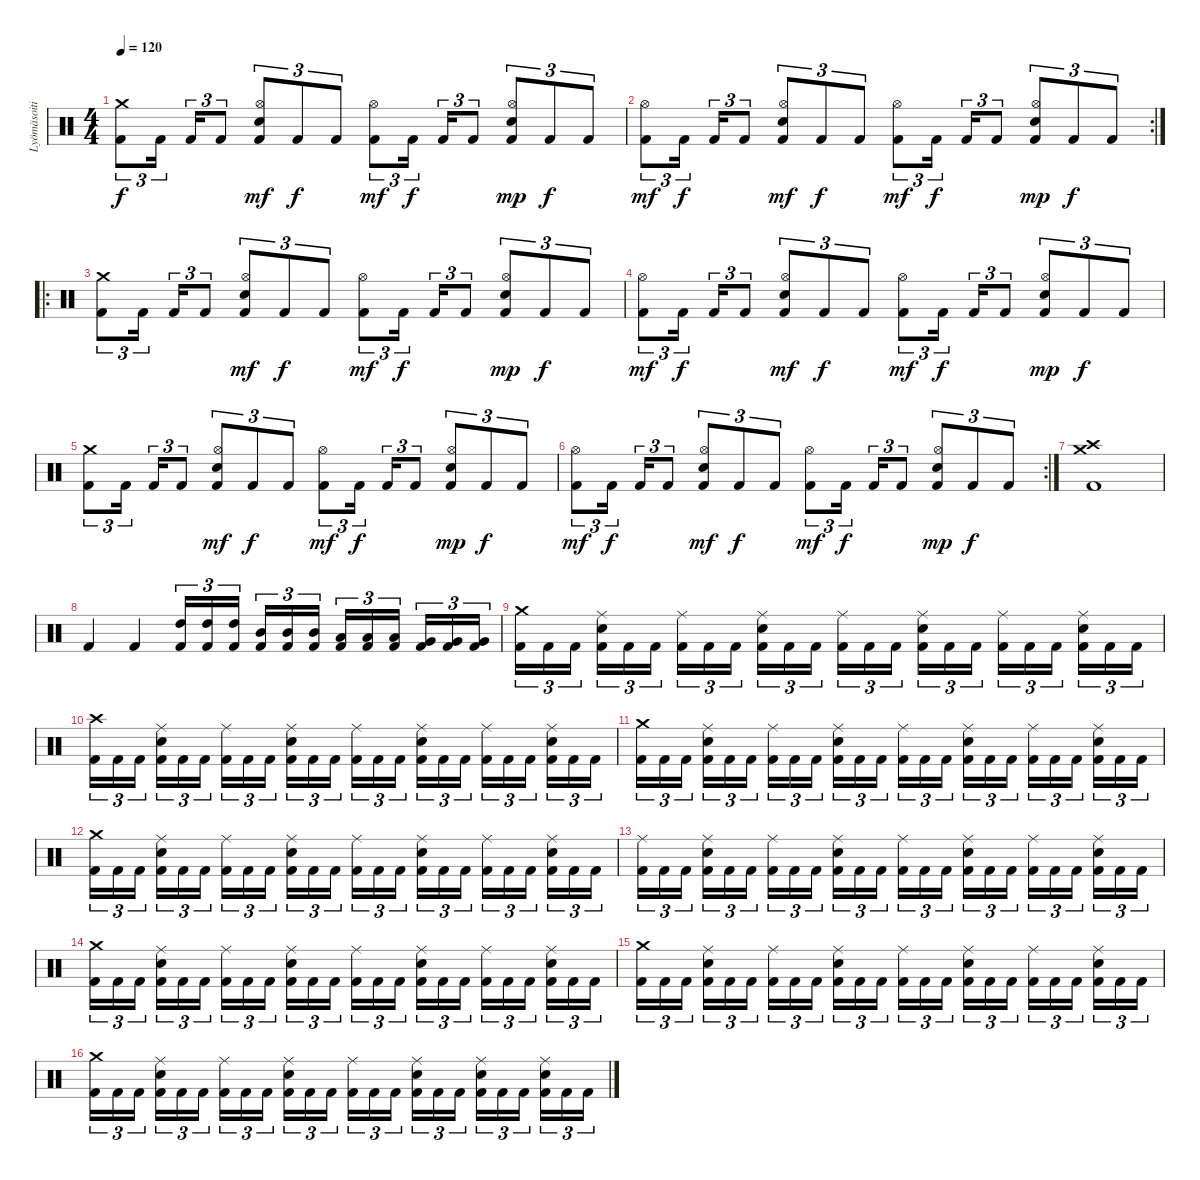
\track ("Lyömäsoitin" "Lyömäsoiti") {instrument percussion}
\staff {score}
\articulation defaults
\ts (4 4)
\tempo 120
\clef neutral
\ks c
("Crash medium (hit)" "Kick (hit) 2").8{tu (3 2) dy f} "Kick (hit) 2".16{tu (3 2)} "Kick (hit) 2".16{tu (3 2)} "Kick (hit) 2".8{tu (3 2)} ("Hi-Hat (open)" "Snare (hit) 2" "Kick (hit) 2").8{tu (3 2) dy mf} "Kick (hit) 2".8{tu (3 2) dy f} "Kick (hit) 2".8{tu (3 2)} ("Hi-Hat (open)" "Kick (hit) 2").8{tu (3 2) dy mf} "Kick (hit) 2".16{tu (3 2) dy f} "Kick (hit) 2".16{tu (3 2)} "Kick (hit) 2".8{tu (3 2)} ("Hi-Hat (open)" "Snare (hit) 2" "Kick (hit) 2").8{tu (3 2) dy mp} "Kick (hit) 2".8{tu (3 2) dy f} "Kick (hit) 2".8{tu (3 2)} |
\rc 2
("Hi-Hat (open)" "Kick (hit) 2").8{tu (3 2) dy mf} "Kick (hit) 2".16{tu (3 2) dy f} "Kick (hit) 2".16{tu (3 2)} "Kick (hit) 2".8{tu (3 2)} ("Hi-Hat (open)" "Snare (hit) 2" "Kick (hit) 2").8{tu (3 2) dy mf} "Kick (hit) 2".8{tu (3 2) dy f} "Kick (hit) 2".8{tu (3 2)} ("Hi-Hat (open)" "Kick (hit) 2").8{tu (3 2) dy mf} "Kick (hit) 2".16{tu (3 2) dy f} "Kick (hit) 2".16{tu (3 2)} "Kick (hit) 2".8{tu (3 2)} ("Hi-Hat (open)" "Snare (hit) 2" "Kick (hit) 2").8{tu (3 2) dy mp} "Kick (hit) 2".8{tu (3 2) dy f} "Kick (hit) 2".8{tu (3 2)} |
\ro
("Crash medium (hit)" "Kick (hit) 2").8{tu (3 2)} "Kick (hit) 2".16{tu (3 2)} "Kick (hit) 2".16{tu (3 2)} "Kick (hit) 2".8{tu (3 2)} ("Hi-Hat (open)" "Snare (hit) 2" "Kick (hit) 2").8{tu (3 2) dy mf} "Kick (hit) 2".8{tu (3 2) dy f} "Kick (hit) 2".8{tu (3 2)} ("Hi-Hat (open)" "Kick (hit) 2").8{tu (3 2) dy mf} "Kick (hit) 2".16{tu (3 2) dy f} "Kick (hit) 2".16{tu (3 2)} "Kick (hit) 2".8{tu (3 2)} ("Hi-Hat (open)" "Snare (hit) 2" "Kick (hit) 2").8{tu (3 2) dy mp} "Kick (hit) 2".8{tu (3 2) dy f} "Kick (hit) 2".8{tu (3 2)} |
("Hi-Hat (open)" "Kick (hit) 2").8{tu (3 2) dy mf} "Kick (hit) 2".16{tu (3 2) dy f} "Kick (hit) 2".16{tu (3 2)} "Kick (hit) 2".8{tu (3 2)} ("Hi-Hat (open)" "Snare (hit) 2" "Kick (hit) 2").8{tu (3 2) dy mf} "Kick (hit) 2".8{tu (3 2) dy f} "Kick (hit) 2".8{tu (3 2)} ("Hi-Hat (open)" "Kick (hit) 2").8{tu (3 2) dy mf} "Kick (hit) 2".16{tu (3 2) dy f} "Kick (hit) 2".16{tu (3 2)} "Kick (hit) 2".8{tu (3 2)} ("Hi-Hat (open)" "Snare (hit) 2" "Kick (hit) 2").8{tu (3 2) dy mp} "Kick (hit) 2".8{tu (3 2) dy f} "Kick (hit) 2".8{tu (3 2)} |
("Crash medium (hit)" "Kick (hit) 2").8{tu (3 2)} "Kick (hit) 2".16{tu (3 2)} "Kick (hit) 2".16{tu (3 2)} "Kick (hit) 2".8{tu (3 2)} ("Hi-Hat (open)" "Snare (hit) 2" "Kick (hit) 2").8{tu (3 2) dy mf} "Kick (hit) 2".8{tu (3 2) dy f} "Kick (hit) 2".8{tu (3 2)} ("Hi-Hat (open)" "Kick (hit) 2").8{tu (3 2) dy mf} "Kick (hit) 2".16{tu (3 2) dy f} "Kick (hit) 2".16{tu (3 2)} "Kick (hit) 2".8{tu (3 2)} ("Hi-Hat (open)" "Snare (hit) 2" "Kick (hit) 2").8{tu (3 2) dy mp} "Kick (hit) 2".8{tu (3 2) dy f} "Kick (hit) 2".8{tu (3 2)} |
\rc 2
("Hi-Hat (open)" "Kick (hit) 2").8{tu (3 2) dy mf} "Kick (hit) 2".16{tu (3 2) dy f} "Kick (hit) 2".16{tu (3 2)} "Kick (hit) 2".8{tu (3 2)} ("Hi-Hat (open)" "Snare (hit) 2" "Kick (hit) 2").8{tu (3 2) dy mf} "Kick (hit) 2".8{tu (3 2) dy f} "Kick (hit) 2".8{tu (3 2)} ("Hi-Hat (open)" "Kick (hit) 2").8{tu (3 2) dy mf} "Kick (hit) 2".16{tu (3 2) dy f} "Kick (hit) 2".16{tu (3 2)} "Kick (hit) 2".8{tu (3 2)} ("Hi-Hat (open)" "Snare (hit) 2" "Kick (hit) 2").8{tu (3 2) dy mp} "Kick (hit) 2".8{tu (3 2) dy f} "Kick (hit) 2".8{tu (3 2)} |
("Crash medium (hit)" "Crash high (hit)" "Kick (hit) 2").1 |
"Kick (hit) 2".4 "Kick (hit) 2".4 ("High Tom (hit)" "Kick (hit) 2").16{tu (3 2)} ("High Tom (hit)" "Kick (hit) 2").16{tu (3 2)} ("High Tom (hit)" "Kick (hit) 2").16{tu (3 2)} ("Mid Tom (hit)" "Kick (hit) 2").16{tu (3 2)} ("Mid Tom (hit)" "Kick (hit) 2").16{tu (3 2)} ("Mid Tom (hit)" "Kick (hit) 2").16{tu (3 2)} ("Low Tom (hit)" "Kick (hit) 2").16{tu (3 2)} ("Low Tom (hit)" "Kick (hit) 2").16{tu (3 2)} ("Low Tom (hit)" "Kick (hit) 2").16{tu (3 2)} ("Very Low Tom (hit)" "Kick (hit) 2").16{tu (3 2)} ("Very Low Tom (hit)" "Kick (hit) 2").16{tu (3 2)} ("Very Low Tom (hit)" "Kick (hit) 2").16{tu (3 2)} |
("Crash medium (hit)" "Kick (hit) 2").16{tu (3 2)} "Kick (hit) 2".16{tu (3 2)} "Kick (hit) 2".16{tu (3 2)} ("Ride (middle)" "Snare (hit) 2" "Kick (hit) 2").16{tu (3 2)} "Kick (hit) 2".16{tu (3 2)} "Kick (hit) 2".16{tu (3 2)} ("Ride (middle)" "Kick (hit) 2").16{tu (3 2)} "Kick (hit) 2".16{tu (3 2)} "Kick (hit) 2".16{tu (3 2)} ("Ride (middle)" "Snare (hit) 2" "Kick (hit) 2").16{tu (3 2)} "Kick (hit) 2".16{tu (3 2)} "Kick (hit) 2".16{tu (3 2)} ("Ride (middle)" "Kick (hit) 2").16{tu (3 2)} "Kick (hit) 2".16{tu (3 2)} "Kick (hit) 2".16{tu (3 2)} ("Ride (middle)" "Snare (hit) 2" "Kick (hit) 2").16{tu (3 2)} "Kick (hit) 2".16{tu (3 2)} "Kick (hit) 2".16{tu (3 2)} ("Ride (middle)" "Kick (hit) 2").16{tu (3 2)} "Kick (hit) 2".16{tu (3 2)} "Kick (hit) 2".16{tu (3 2)} ("Ride (middle)" "Snare (hit) 2" "Kick (hit) 2").16{tu (3 2)} "Kick (hit) 2".16{tu (3 2)} "Kick (hit) 2".16{tu (3 2)} |
("Crash high (hit)" "Kick (hit) 2").16{tu (3 2)} "Kick (hit) 2".16{tu (3 2)} "Kick (hit) 2".16{tu (3 2)} ("Ride (middle)" "Snare (hit) 2" "Kick (hit) 2").16{tu (3 2)} "Kick (hit) 2".16{tu (3 2)} "Kick (hit) 2".16{tu (3 2)} ("Ride (middle)" "Kick (hit) 2").16{tu (3 2)} "Kick (hit) 2".16{tu (3 2)} "Kick (hit) 2".16{tu (3 2)} ("Ride (middle)" "Snare (hit) 2" "Kick (hit) 2").16{tu (3 2)} "Kick (hit) 2".16{tu (3 2)} "Kick (hit) 2".16{tu (3 2)} ("Ride (middle)" "Kick (hit) 2").16{tu (3 2)} "Kick (hit) 2".16{tu (3 2)} "Kick (hit) 2".16{tu (3 2)} ("Ride (middle)" "Snare (hit) 2" "Kick (hit) 2").16{tu (3 2)} "Kick (hit) 2".16{tu (3 2)} "Kick (hit) 2".16{tu (3 2)} ("Ride (middle)" "Kick (hit) 2").16{tu (3 2)} "Kick (hit) 2".16{tu (3 2)} "Kick (hit) 2".16{tu (3 2)} ("Ride (middle)" "Snare (hit) 2" "Kick (hit) 2").16{tu (3 2)} "Kick (hit) 2".16{tu (3 2)} "Kick (hit) 2".16{tu (3 2)} |
("Crash medium (hit)" "Kick (hit) 2").16{tu (3 2)} "Kick (hit) 2".16{tu (3 2)} "Kick (hit) 2".16{tu (3 2)} ("Ride (middle)" "Snare (hit) 2" "Kick (hit) 2").16{tu (3 2)} "Kick (hit) 2".16{tu (3 2)} "Kick (hit) 2".16{tu (3 2)} ("Ride (middle)" "Kick (hit) 2").16{tu (3 2)} "Kick (hit) 2".16{tu (3 2)} "Kick (hit) 2".16{tu (3 2)} ("Ride (middle)" "Snare (hit) 2" "Kick (hit) 2").16{tu (3 2)} "Kick (hit) 2".16{tu (3 2)} "Kick (hit) 2".16{tu (3 2)} ("Ride (middle)" "Kick (hit) 2").16{tu (3 2)} "Kick (hit) 2".16{tu (3 2)} "Kick (hit) 2".16{tu (3 2)} ("Ride (middle)" "Snare (hit) 2" "Kick (hit) 2").16{tu (3 2)} "Kick (hit) 2".16{tu (3 2)} "Kick (hit) 2".16{tu (3 2)} ("Ride (middle)" "Kick (hit) 2").16{tu (3 2)} "Kick (hit) 2".16{tu (3 2)} "Kick (hit) 2".16{tu (3 2)} ("Ride (middle)" "Snare (hit) 2" "Kick (hit) 2").16{tu (3 2)} "Kick (hit) 2".16{tu (3 2)} "Kick (hit) 2".16{tu (3 2)} |
("Crash medium (hit)" "Kick (hit) 2").16{tu (3 2)} "Kick (hit) 2".16{tu (3 2)} "Kick (hit) 2".16{tu (3 2)} ("Ride (middle)" "Snare (hit) 2" "Kick (hit) 2").16{tu (3 2)} "Kick (hit) 2".16{tu (3 2)} "Kick (hit) 2".16{tu (3 2)} ("Ride (middle)" "Kick (hit) 2").16{tu (3 2)} "Kick (hit) 2".16{tu (3 2)} "Kick (hit) 2".16{tu (3 2)} ("Ride (middle)" "Snare (hit) 2" "Kick (hit) 2").16{tu (3 2)} "Kick (hit) 2".16{tu (3 2)} "Kick (hit) 2".16{tu (3 2)} ("Ride (middle)" "Kick (hit) 2").16{tu (3 2)} "Kick (hit) 2".16{tu (3 2)} "Kick (hit) 2".16{tu (3 2)} ("Ride (middle)" "Snare (hit) 2" "Kick (hit) 2").16{tu (3 2)} "Kick (hit) 2".16{tu (3 2)} "Kick (hit) 2".16{tu (3 2)} ("Ride (middle)" "Kick (hit) 2").16{tu (3 2)} "Kick (hit) 2".16{tu (3 2)} "Kick (hit) 2".16{tu (3 2)} ("Ride (middle)" "Snare (hit) 2" "Kick (hit) 2").16{tu (3 2)} "Kick (hit) 2".16{tu (3 2)} "Kick (hit) 2".16{tu (3 2)} |
("Ride (middle)" "Kick (hit) 2").16{tu (3 2)} "Kick (hit) 2".16{tu (3 2)} "Kick (hit) 2".16{tu (3 2)} ("Ride (middle)" "Snare (hit) 2" "Kick (hit) 2").16{tu (3 2)} "Kick (hit) 2".16{tu (3 2)} "Kick (hit) 2".16{tu (3 2)} ("Ride (middle)" "Kick (hit) 2").16{tu (3 2)} "Kick (hit) 2".16{tu (3 2)} "Kick (hit) 2".16{tu (3 2)} ("Ride (middle)" "Snare (hit) 2" "Kick (hit) 2").16{tu (3 2)} "Kick (hit) 2".16{tu (3 2)} "Kick (hit) 2".16{tu (3 2)} ("Ride (middle)" "Kick (hit) 2").16{tu (3 2)} "Kick (hit) 2".16{tu (3 2)} "Kick (hit) 2".16{tu (3 2)} ("Ride (middle)" "Snare (hit) 2" "Kick (hit) 2").16{tu (3 2)} "Kick (hit) 2".16{tu (3 2)} "Kick (hit) 2".16{tu (3 2)} ("Ride (middle)" "Kick (hit) 2").16{tu (3 2)} "Kick (hit) 2".16{tu (3 2)} "Kick (hit) 2".16{tu (3 2)} ("Ride (middle)" "Snare (hit) 2" "Kick (hit) 2").16{tu (3 2)} "Kick (hit) 2".16{tu (3 2)} "Kick (hit) 2".16{tu (3 2)} |
("Crash medium (hit)" "Kick (hit) 2").16{tu (3 2)} "Kick (hit) 2".16{tu (3 2)} "Kick (hit) 2".16{tu (3 2)} ("Ride (middle)" "Snare (hit) 2" "Kick (hit) 2").16{tu (3 2)} "Kick (hit) 2".16{tu (3 2)} "Kick (hit) 2".16{tu (3 2)} ("Ride (middle)" "Kick (hit) 2").16{tu (3 2)} "Kick (hit) 2".16{tu (3 2)} "Kick (hit) 2".16{tu (3 2)} ("Ride (middle)" "Snare (hit) 2" "Kick (hit) 2").16{tu (3 2)} "Kick (hit) 2".16{tu (3 2)} "Kick (hit) 2".16{tu (3 2)} ("Ride (middle)" "Kick (hit) 2").16{tu (3 2)} "Kick (hit) 2".16{tu (3 2)} "Kick (hit) 2".16{tu (3 2)} ("Ride (middle)" "Snare (hit) 2" "Kick (hit) 2").16{tu (3 2)} "Kick (hit) 2".16{tu (3 2)} "Kick (hit) 2".16{tu (3 2)} ("Ride (middle)" "Kick (hit) 2").16{tu (3 2)} "Kick (hit) 2".16{tu (3 2)} "Kick (hit) 2".16{tu (3 2)} ("Ride (middle)" "Snare (hit) 2" "Kick (hit) 2").16{tu (3 2)} "Kick (hit) 2".16{tu (3 2)} "Kick (hit) 2".16{tu (3 2)} |
("Crash medium (hit)" "Kick (hit) 2").16{tu (3 2)} "Kick (hit) 2".16{tu (3 2)} "Kick (hit) 2".16{tu (3 2)} ("Ride (middle)" "Snare (hit) 2" "Kick (hit) 2").16{tu (3 2)} "Kick (hit) 2".16{tu (3 2)} "Kick (hit) 2".16{tu (3 2)} ("Ride (middle)" "Kick (hit) 2").16{tu (3 2)} "Kick (hit) 2".16{tu (3 2)} "Kick (hit) 2".16{tu (3 2)} ("Ride (middle)" "Snare (hit) 2" "Kick (hit) 2").16{tu (3 2)} "Kick (hit) 2".16{tu (3 2)} "Kick (hit) 2".16{tu (3 2)} ("Ride (middle)" "Kick (hit) 2").16{tu (3 2)} "Kick (hit) 2".16{tu (3 2)} "Kick (hit) 2".16{tu (3 2)} ("Ride (middle)" "Snare (hit) 2" "Kick (hit) 2").16{tu (3 2)} "Kick (hit) 2".16{tu (3 2)} "Kick (hit) 2".16{tu (3 2)} ("Ride (middle)" "Kick (hit) 2").16{tu (3 2)} "Kick (hit) 2".16{tu (3 2)} "Kick (hit) 2".16{tu (3 2)} ("Ride (middle)" "Snare (hit) 2" "Kick (hit) 2").16{tu (3 2)} "Kick (hit) 2".16{tu (3 2)} "Kick (hit) 2".16{tu (3 2)} |
("Crash medium (hit)" "Kick (hit) 2").16{tu (3 2)} "Kick (hit) 2".16{tu (3 2)} "Kick (hit) 2".16{tu (3 2)} ("Ride (middle)" "Snare (hit) 2" "Kick (hit) 2").16{tu (3 2)} "Kick (hit) 2".16{tu (3 2)} "Kick (hit) 2".16{tu (3 2)} ("Ride (middle)" "Kick (hit) 2").16{tu (3 2)} "Kick (hit) 2".16{tu (3 2)} "Kick (hit) 2".16{tu (3 2)} ("Ride (middle)" "Snare (hit) 2" "Kick (hit) 2").16{tu (3 2)} "Kick (hit) 2".16{tu (3 2)} "Kick (hit) 2".16{tu (3 2)} ("Ride (middle)" "Kick (hit) 2").16{tu (3 2)} "Kick (hit) 2".16{tu (3 2)} "Kick (hit) 2".16{tu (3 2)} ("Ride (middle)" "Snare (hit) 2" "Kick (hit) 2").16{tu (3 2)} "Kick (hit) 2".16{tu (3 2)} "Kick (hit) 2".16{tu (3 2)} ("Ride (middle)" "Snare (hit) 2" "Kick (hit) 2").16{tu (3 2)} "Kick (hit) 2".16{tu (3 2)} "Kick (hit) 2".16{tu (3 2)} ("Ride (middle)" "Snare (hit) 2" "Kick (hit) 2").16{tu (3 2)} "Kick (hit) 2".16{tu (3 2)} "Kick (hit) 2".16{tu (3 2)}
